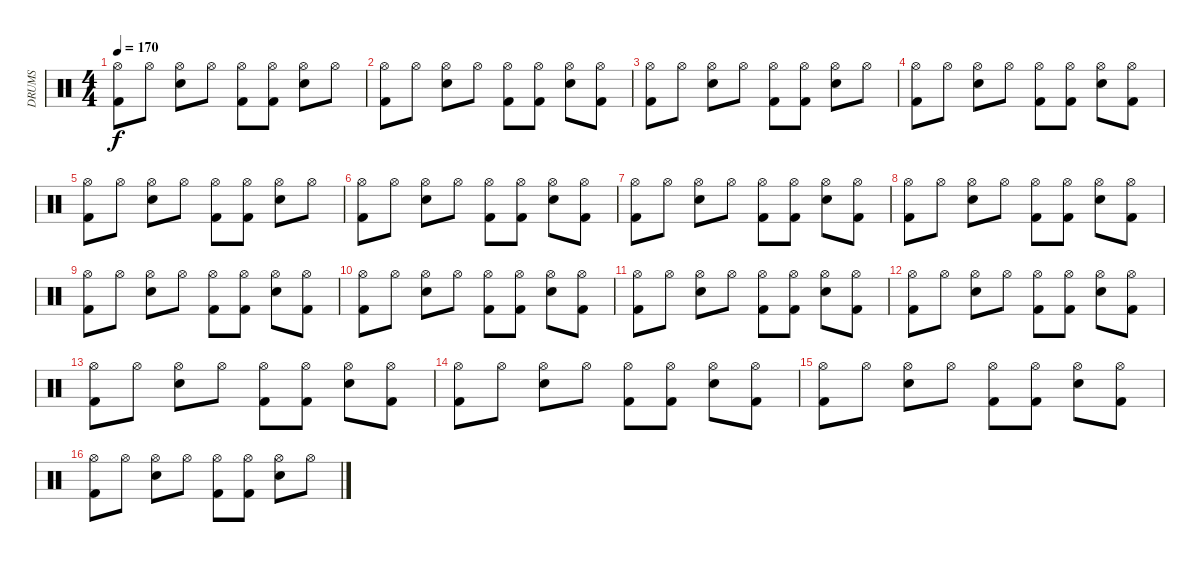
\track ("DRUMS" "DRUMS") {instrument percussion}
\staff {score}
\articulation defaults
\ts (4 4)
\tempo 170
\clef neutral
\ks c
("Hi-Hat (open)" "Kick (hit) 2").8{dy f} "Hi-Hat (open)".8 ("Hi-Hat (open)" "Snare (hit) 2").8 "Hi-Hat (open)".8 ("Hi-Hat (open)" "Kick (hit) 2").8 ("Hi-Hat (open)" "Kick (hit) 2").8 ("Hi-Hat (open)" "Snare (hit) 2").8 "Hi-Hat (open)".8 |
("Hi-Hat (open)" "Kick (hit) 2").8 "Hi-Hat (open)".8 ("Hi-Hat (open)" "Snare (hit) 2").8 "Hi-Hat (open)".8 ("Hi-Hat (open)" "Kick (hit) 2").8 ("Hi-Hat (open)" "Kick (hit) 2").8 ("Hi-Hat (open)" "Snare (hit) 2").8 ("Hi-Hat (open)" "Kick (hit) 2").8 |
("Hi-Hat (open)" "Kick (hit) 2").8 "Hi-Hat (open)".8 ("Hi-Hat (open)" "Snare (hit) 2").8 "Hi-Hat (open)".8 ("Hi-Hat (open)" "Kick (hit) 2").8 ("Hi-Hat (open)" "Kick (hit) 2").8 ("Hi-Hat (open)" "Snare (hit) 2").8 "Hi-Hat (open)".8 |
("Hi-Hat (open)" "Kick (hit) 2").8 "Hi-Hat (open)".8 ("Hi-Hat (open)" "Snare (hit) 2").8 "Hi-Hat (open)".8 ("Hi-Hat (open)" "Kick (hit) 2").8 ("Hi-Hat (open)" "Kick (hit) 2").8 ("Hi-Hat (open)" "Snare (hit) 2").8 ("Hi-Hat (open)" "Kick (hit) 2").8 |
("Hi-Hat (open)" "Kick (hit) 2").8 "Hi-Hat (open)".8 ("Hi-Hat (open)" "Snare (hit) 2").8 "Hi-Hat (open)".8 ("Hi-Hat (open)" "Kick (hit) 2").8 ("Hi-Hat (open)" "Kick (hit) 2").8 ("Hi-Hat (open)" "Snare (hit) 2").8 "Hi-Hat (open)".8 |
("Hi-Hat (open)" "Kick (hit) 2").8 "Hi-Hat (open)".8 ("Hi-Hat (open)" "Snare (hit) 2").8 "Hi-Hat (open)".8 ("Hi-Hat (open)" "Kick (hit) 2").8 ("Hi-Hat (open)" "Kick (hit) 2").8 ("Hi-Hat (open)" "Snare (hit) 2").8 ("Hi-Hat (open)" "Kick (hit) 2").8 |
("Hi-Hat (open)" "Kick (hit) 2").8 "Hi-Hat (open)".8 ("Hi-Hat (open)" "Snare (hit) 2").8 "Hi-Hat (open)".8 ("Hi-Hat (open)" "Kick (hit) 2").8 ("Hi-Hat (open)" "Kick (hit) 2").8 ("Hi-Hat (open)" "Snare (hit) 2").8 ("Hi-Hat (open)" "Kick (hit) 2").8 |
("Hi-Hat (open)" "Kick (hit) 2").8 "Hi-Hat (open)".8 ("Hi-Hat (open)" "Snare (hit) 2").8 "Hi-Hat (open)".8 ("Hi-Hat (open)" "Kick (hit) 2").8 ("Hi-Hat (open)" "Kick (hit) 2").8 ("Hi-Hat (open)" "Snare (hit) 2").8 ("Hi-Hat (open)" "Kick (hit) 2").8 |
("Hi-Hat (open)" "Kick (hit) 2").8 "Hi-Hat (open)".8 ("Hi-Hat (open)" "Snare (hit) 2").8 "Hi-Hat (open)".8 ("Hi-Hat (open)" "Kick (hit) 2").8 ("Hi-Hat (open)" "Kick (hit) 2").8 ("Hi-Hat (open)" "Snare (hit) 2").8 ("Hi-Hat (open)" "Kick (hit) 2").8 |
("Hi-Hat (open)" "Kick (hit) 2").8 "Hi-Hat (open)".8 ("Hi-Hat (open)" "Snare (hit) 2").8 "Hi-Hat (open)".8 ("Hi-Hat (open)" "Kick (hit) 2").8 ("Hi-Hat (open)" "Kick (hit) 2").8 ("Hi-Hat (open)" "Snare (hit) 2").8 ("Hi-Hat (open)" "Kick (hit) 2").8 |
("Hi-Hat (open)" "Kick (hit) 2").8 "Hi-Hat (open)".8 ("Hi-Hat (open)" "Snare (hit) 2").8 "Hi-Hat (open)".8 ("Hi-Hat (open)" "Kick (hit) 2").8 ("Hi-Hat (open)" "Kick (hit) 2").8 ("Hi-Hat (open)" "Snare (hit) 2").8 ("Hi-Hat (open)" "Kick (hit) 2").8 |
("Hi-Hat (open)" "Kick (hit) 2").8 "Hi-Hat (open)".8 ("Hi-Hat (open)" "Snare (hit) 2").8 "Hi-Hat (open)".8 ("Hi-Hat (open)" "Kick (hit) 2").8 ("Hi-Hat (open)" "Kick (hit) 2").8 ("Hi-Hat (open)" "Snare (hit) 2").8 ("Hi-Hat (open)" "Kick (hit) 2").8 |
("Hi-Hat (open)" "Kick (hit) 2").8 "Hi-Hat (open)".8 ("Hi-Hat (open)" "Snare (hit) 2").8 "Hi-Hat (open)".8 ("Hi-Hat (open)" "Kick (hit) 2").8 ("Hi-Hat (open)" "Kick (hit) 2").8 ("Hi-Hat (open)" "Snare (hit) 2").8 ("Hi-Hat (open)" "Kick (hit) 2").8 |
("Hi-Hat (open)" "Kick (hit) 2").8 "Hi-Hat (open)".8 ("Hi-Hat (open)" "Snare (hit) 2").8 "Hi-Hat (open)".8 ("Hi-Hat (open)" "Kick (hit) 2").8 ("Hi-Hat (open)" "Kick (hit) 2").8 ("Hi-Hat (open)" "Snare (hit) 2").8 ("Hi-Hat (open)" "Kick (hit) 2").8 |
("Hi-Hat (open)" "Kick (hit) 2").8 "Hi-Hat (open)".8 ("Hi-Hat (open)" "Snare (hit) 2").8 "Hi-Hat (open)".8 ("Hi-Hat (open)" "Kick (hit) 2").8 ("Hi-Hat (open)" "Kick (hit) 2").8 ("Hi-Hat (open)" "Snare (hit) 2").8 ("Hi-Hat (open)" "Kick (hit) 2").8 |
("Hi-Hat (open)" "Kick (hit) 2").8 "Hi-Hat (open)".8 ("Hi-Hat (open)" "Snare (hit) 2").8 "Hi-Hat (open)".8 ("Hi-Hat (open)" "Kick (hit) 2").8 ("Hi-Hat (open)" "Kick (hit) 2").8 ("Hi-Hat (open)" "Snare (hit) 2").8 "Hi-Hat (open)".8
